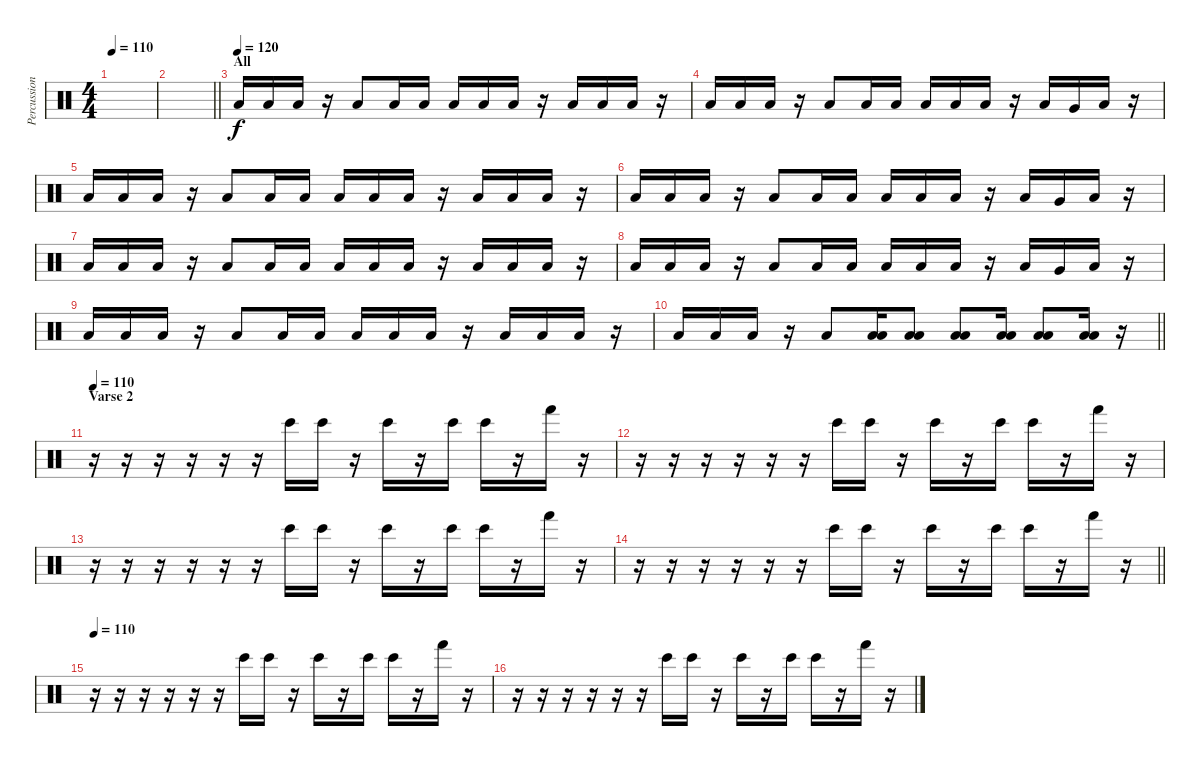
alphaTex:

\track ("Percussions" "Percussion") {instrument percussion}
\staff {score}
\articulation defaults
\ts (4 4)
\tempo 110
\clef neutral
\ks c
|
\barLineRight lightlight
|
\section ("" "All")
\tempo (120)
"Low Floor Tom (hit)".16 "Low Floor Tom (hit)".16 "Low Floor Tom (hit)".16 r.16 "Low Floor Tom (hit)".8 "Low Floor Tom (hit)".16 "Low Floor Tom (hit)".16 "Low Floor Tom (hit)".16 "Low Floor Tom (hit)".16 "Low Floor Tom (hit)".16 r.16 "Low Floor Tom (hit)".16 "Low Floor Tom (hit)".16 "Low Floor Tom (hit)".16 r.16 |
"Low Floor Tom (hit)".16 "Low Floor Tom (hit)".16 "Low Floor Tom (hit)".16 r.16 "Low Floor Tom (hit)".8 "Low Floor Tom (hit)".16 "Low Floor Tom (hit)".16 "Low Floor Tom (hit)".16 "Low Floor Tom (hit)".16 "Low Floor Tom (hit)".16 r.16 "Low Floor Tom (hit)".16 "Very Low Tom (hit)".16 "Low Floor Tom (hit)".16 r.16 |
"Low Floor Tom (hit)".16 "Low Floor Tom (hit)".16 "Low Floor Tom (hit)".16 r.16 "Low Floor Tom (hit)".8 "Low Floor Tom (hit)".16 "Low Floor Tom (hit)".16 "Low Floor Tom (hit)".16 "Low Floor Tom (hit)".16 "Low Floor Tom (hit)".16 r.16 "Low Floor Tom (hit)".16 "Low Floor Tom (hit)".16 "Low Floor Tom (hit)".16 r.16 |
"Low Floor Tom (hit)".16 "Low Floor Tom (hit)".16 "Low Floor Tom (hit)".16 r.16 "Low Floor Tom (hit)".8 "Low Floor Tom (hit)".16 "Low Floor Tom (hit)".16 "Low Floor Tom (hit)".16 "Low Floor Tom (hit)".16 "Low Floor Tom (hit)".16 r.16 "Low Floor Tom (hit)".16 "Very Low Tom (hit)".16 "Low Floor Tom (hit)".16 r.16 |
"Low Floor Tom (hit)".16 "Low Floor Tom (hit)".16 "Low Floor Tom (hit)".16 r.16 "Low Floor Tom (hit)".8 "Low Floor Tom (hit)".16 "Low Floor Tom (hit)".16 "Low Floor Tom (hit)".16 "Low Floor Tom (hit)".16 "Low Floor Tom (hit)".16 r.16 "Low Floor Tom (hit)".16 "Low Floor Tom (hit)".16 "Low Floor Tom (hit)".16 r.16 |
"Low Floor Tom (hit)".16 "Low Floor Tom (hit)".16 "Low Floor Tom (hit)".16 r.16 "Low Floor Tom (hit)".8 "Low Floor Tom (hit)".16 "Low Floor Tom (hit)".16 "Low Floor Tom (hit)".16 "Low Floor Tom (hit)".16 "Low Floor Tom (hit)".16 r.16 "Low Floor Tom (hit)".16 "Very Low Tom (hit)".16 "Low Floor Tom (hit)".16 r.16 |
"Low Floor Tom (hit)".16 "Low Floor Tom (hit)".16 "Low Floor Tom (hit)".16 r.16 "Low Floor Tom (hit)".8 "Low Floor Tom (hit)".16 "Low Floor Tom (hit)".16 "Low Floor Tom (hit)".16 "Low Floor Tom (hit)".16 "Low Floor Tom (hit)".16 r.16 "Low Floor Tom (hit)".16 "Low Floor Tom (hit)".16 "Low Floor Tom (hit)".16 r.16 |
\barLineRight lightlight "Low Floor Tom (hit)".16 "Low Floor Tom (hit)".16 "Low Floor Tom (hit)".16
r.16 "Low Floor Tom (hit)".8 ("Low Floor Tom (hit)" "Low Floor Tom (hit)").16 ("Low Floor Tom (hit)" "Low Floor Tom (hit)").8 ("Low Floor Tom (hit)" "Low Floor Tom (hit)").8 ("Low Floor Tom (hit)" "Low Floor Tom (hit)").16 ("Low Floor Tom (hit)" "Low Floor Tom (hit)").8 ("Low Floor Tom (hit)" "Low Floor Tom (hit)").16 r.16 |
\section ("" "Varse 2")
\tempo 110
r.16 r.16 r.16 r.16 r.16 r.16 "Bongo High (hit)".16 "Bongo High (hit)".16 r.16 "Bongo High (hit)".16 r.16 "Bongo High (hit)".16 "Bongo High (hit)".16 r.16 "Hand (hit)".16 r.16 |
r.16 r.16 r.16 r.16 r.16 r.16 "Bongo High (hit)".16 "Bongo High (hit)".16 r.16 "Bongo High (hit)".16 r.16 "Bongo High (hit)".16 "Bongo High (hit)".16 r.16 "Hand (hit)".16 r.16 |
r.16 r.16 r.16 r.16 r.16 r.16 "Bongo High (hit)".16 "Bongo High (hit)".16 r.16 "Bongo High (hit)".16 r.16 "Bongo High (hit)".16 "Bongo High (hit)".16 r.16 "Hand (hit)".16 r.16 |
\barLineRight lightlight
r.16 r.16 r.16 r.16 r.16 r.16 "Bongo High (hit)".16 "Bongo High (hit)".16 r.16 "Bongo High (hit)".16 r.16 "Bongo High (hit)".16 "Bongo High (hit)".16 r.16 "Hand (hit)".16 r.16 |
\tempo 110
r.16 r.16 r.16 r.16 r.16 r.16 "Bongo High (hit)".16 "Bongo High (hit)".16 r.16 "Bongo High (hit)".16 r.16 "Bongo High (hit)".16 "Bongo High (hit)".16 r.16 "Hand (hit)".16 r.16 |
r.16 r.16 r.16 r.16 r.16 r.16 "Bongo High (hit)".16 "Bongo High (hit)".16 r.16 "Bongo High (hit)".16 r.16 "Bongo High (hit)".16 "Bongo High (hit)".16 r.16 "Hand (hit)".16 r.16
